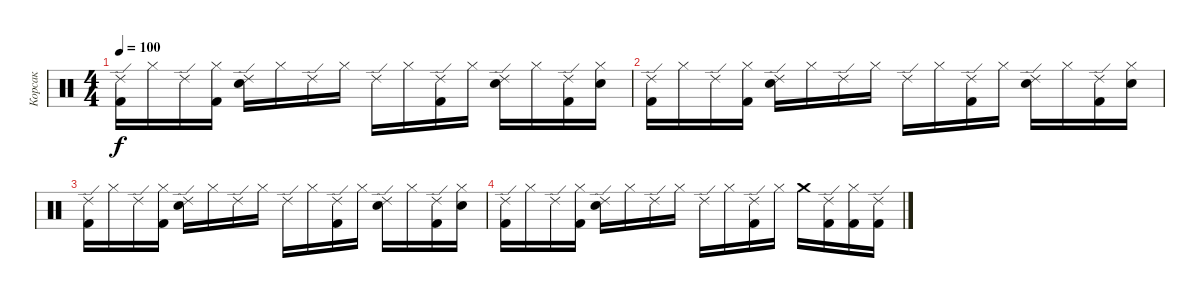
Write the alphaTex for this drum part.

\track ("Корсак" "Корсак") {instrument percussion}
\staff {score}
\articulation defaults
\ts (4 4)
\tempo 100
\clef neutral
\ks c
("Ride (edge) 2" "Kick (hit) 2").16{dy f} "Hi-Hat (closed)".16 "Ride (edge) 2".16 ("Hi-Hat (closed)" "Kick (hit) 2").16 ("Ride (edge) 2" "Electric Snare (hit)").16 "Hi-Hat (closed)".16 "Ride (edge) 2".16 "Hi-Hat (closed)".16 "Ride (edge) 2".16 "Hi-Hat (closed)".16 ("Ride (edge) 2" "Kick (hit) 2").16 "Hi-Hat (closed)".16 ("Ride (edge) 2" "Electric Snare (hit)").16 "Hi-Hat (closed)".16 ("Ride (edge) 2" "Kick (hit) 2").16 ("Hi-Hat (closed)" "Electric Snare (hit)").16 |
("Ride (edge) 2" "Kick (hit) 2").16 "Hi-Hat (closed)".16 "Ride (edge) 2".16 ("Hi-Hat (closed)" "Kick (hit) 2").16 ("Ride (edge) 2" "Electric Snare (hit)").16 "Hi-Hat (closed)".16 "Ride (edge) 2".16 "Hi-Hat (closed)".16 "Ride (edge) 2".16 "Hi-Hat (closed)".16 ("Ride (edge) 2" "Kick (hit) 2").16 "Hi-Hat (closed)".16 ("Ride (edge) 2" "Electric Snare (hit)").16 "Hi-Hat (closed)".16 ("Ride (edge) 2" "Kick (hit) 2").16 ("Hi-Hat (closed)" "Electric Snare (hit)").16 |
("Ride (edge) 2" "Kick (hit) 2").16 "Hi-Hat (closed)".16 "Ride (edge) 2".16 ("Hi-Hat (closed)" "Kick (hit) 2").16 ("Ride (edge) 2" "Electric Snare (hit)").16 "Hi-Hat (closed)".16 "Ride (edge) 2".16 "Hi-Hat (closed)".16 "Ride (edge) 2".16 "Hi-Hat (closed)".16 ("Ride (edge) 2" "Kick (hit) 2").16 "Hi-Hat (closed)".16 ("Ride (edge) 2" "Electric Snare (hit)").16 "Hi-Hat (closed)".16 ("Ride (edge) 2" "Kick (hit) 2").16 ("Hi-Hat (closed)" "Electric Snare (hit)").16 |
("Ride (edge) 2" "Kick (hit) 2").16 "Hi-Hat (closed)".16 "Ride (edge) 2".16 ("Hi-Hat (closed)" "Kick (hit) 2").16 ("Ride (edge) 2" "Electric Snare (hit)").16 "Hi-Hat (closed)".16 "Ride (edge) 2".16 "Hi-Hat (closed)".16 "Ride (edge) 2".16 "Hi-Hat (closed)".16 ("Ride (edge) 2" "Kick (hit) 2").16 "Hi-Hat (closed)".16 "Crash medium (hit)".16 ("Ride (edge) 2" "Kick (hit) 2").16 ("Hi-Hat (closed)" "Kick (hit) 2").16 ("Ride (edge) 2" "Kick (hit) 2").16
